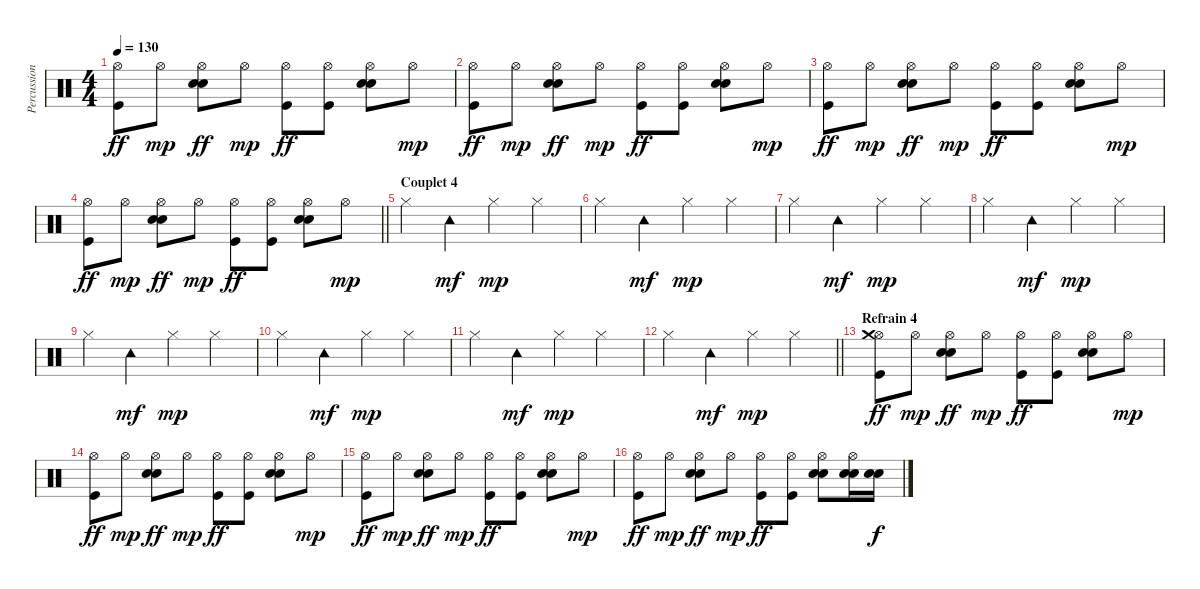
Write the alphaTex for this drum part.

\track ("Percussions" "Percussion") {instrument percussion}
\staff {score}
\articulation defaults
\ts (4 4)
\tempo 130
\clef neutral
\ks c
("Hi-Hat (open)" "Kick (hit)").8{dy ff} "Hi-Hat (open)".8{dy mp} ("Hi-Hat (open)" "Snare (hit) 2" "Electric Snare (hit)").8{dy ff} "Hi-Hat (open)".8{dy mp} ("Hi-Hat (open)" "Kick (hit)").8{dy ff} ("Hi-Hat (open)" "Kick (hit)").8 ("Hi-Hat (open)" "Snare (hit) 2" "Electric Snare (hit)").8 "Hi-Hat (open)".8{dy mp} |
("Hi-Hat (open)" "Kick (hit)").8{dy ff} "Hi-Hat (open)".8{dy mp} ("Hi-Hat (open)" "Snare (hit) 2" "Electric Snare (hit)").8{dy ff} "Hi-Hat (open)".8{dy mp} ("Hi-Hat (open)" "Kick (hit)").8{dy ff} ("Hi-Hat (open)" "Kick (hit)").8 ("Hi-Hat (open)" "Snare (hit) 2" "Electric Snare (hit)").8 "Hi-Hat (open)".8{dy mp} |
("Hi-Hat (open)" "Kick (hit)").8{dy ff} "Hi-Hat (open)".8{dy mp} ("Hi-Hat (open)" "Snare (hit) 2" "Electric Snare (hit)").8{dy ff} "Hi-Hat (open)".8{dy mp} ("Hi-Hat (open)" "Kick (hit)").8{dy ff} ("Hi-Hat (open)" "Kick (hit)").8 ("Hi-Hat (open)" "Snare (hit) 2" "Electric Snare (hit)").8 "Hi-Hat (open)".8{dy mp} |
\barLineRight lightlight
("Hi-Hat (open)" "Kick (hit)").8{dy ff} "Hi-Hat (open)".8{dy mp} ("Hi-Hat (open)" "Snare (hit) 2" "Electric Snare (hit)").8{dy ff} "Hi-Hat (open)".8{dy mp} ("Hi-Hat (open)" "Kick (hit)").8{dy ff} ("Hi-Hat (open)" "Kick (hit)").8 ("Hi-Hat (open)" "Snare (hit) 2" "Electric Snare (hit)").8 "Hi-Hat (open)".8{dy mp} |
\section ("" "Couplet 4")
"Hi-Hat (closed)".4 "Tambourine (hit)".4{dy mf} "Hi-Hat (closed)".4{dy mp} "Hi-Hat (closed)".4 |
"Hi-Hat (closed)".4 "Tambourine (hit)".4{dy mf} "Hi-Hat (closed)".4{dy mp} "Hi-Hat (closed)".4 |
"Hi-Hat (closed)".4 "Tambourine (hit)".4{dy mf} "Hi-Hat (closed)".4{dy mp} "Hi-Hat (closed)".4 |
"Hi-Hat (closed)".4 "Tambourine (hit)".4{dy mf} "Hi-Hat (closed)".4{dy mp} "Hi-Hat (closed)".4 |
"Hi-Hat (closed)".4 "Tambourine (hit)".4{dy mf} "Hi-Hat (closed)".4{dy mp} "Hi-Hat (closed)".4 |
"Hi-Hat (closed)".4 "Tambourine (hit)".4{dy mf} "Hi-Hat (closed)".4{dy mp} "Hi-Hat (closed)".4 |
"Hi-Hat (closed)".4 "Tambourine (hit)".4{dy mf} "Hi-Hat (closed)".4{dy mp} "Hi-Hat (closed)".4 |
\barLineRight lightlight "Hi-Hat (closed)".4 "Tambourine (hit)".4{dy mf} "Hi-Hat (closed)".4{dy mp} "Hi-Hat (closed)".4
|
\section ("" "Refrain 4")
("Hi-Hat (open)" "Crash medium (hit)" "Kick (hit)").8{dy ff} "Hi-Hat (open)".8{dy mp} ("Hi-Hat (open)" "Snare (hit) 2" "Electric Snare (hit)").8{dy ff} "Hi-Hat (open)".8{dy mp} ("Hi-Hat (open)" "Kick (hit)").8{dy ff} ("Hi-Hat (open)" "Kick (hit)").8 ("Hi-Hat (open)" "Snare (hit) 2" "Electric Snare (hit)").8 "Hi-Hat (open)".8{dy mp} |
("Hi-Hat (open)" "Kick (hit)").8{dy ff} "Hi-Hat (open)".8{dy mp} ("Hi-Hat (open)" "Snare (hit) 2" "Electric Snare (hit)").8{dy ff} "Hi-Hat (open)".8{dy mp} ("Hi-Hat (open)" "Kick (hit)").8{dy ff} ("Hi-Hat (open)" "Kick (hit)").8 ("Hi-Hat (open)" "Snare (hit) 2" "Electric Snare (hit)").8 "Hi-Hat (open)".8{dy mp} |
("Hi-Hat (open)" "Kick (hit)").8{dy ff} "Hi-Hat (open)".8{dy mp} ("Hi-Hat (open)" "Snare (hit) 2" "Electric Snare (hit)").8{dy ff} "Hi-Hat (open)".8{dy mp} ("Hi-Hat (open)" "Kick (hit)").8{dy ff} ("Hi-Hat (open)" "Kick (hit)").8 ("Hi-Hat (open)" "Snare (hit) 2" "Electric Snare (hit)").8 "Hi-Hat (open)".8{dy mp} |
("Hi-Hat (open)" "Kick (hit)").8{dy ff} "Hi-Hat (open)".8{dy mp} ("Hi-Hat (open)" "Snare (hit) 2" "Electric Snare (hit)").8{dy ff} "Hi-Hat (open)".8{dy mp} ("Hi-Hat (open)" "Kick (hit)").8{dy ff} ("Hi-Hat (open)" "Kick (hit)").8 ("Hi-Hat (open)" "Snare (hit) 2" "Electric Snare (hit)").8 ("Hi-Hat (open)" "Snare (hit) 2" "Electric Snare (hit)").16 ("Snare (hit) 2" "Electric Snare (hit)").16{dy f}
